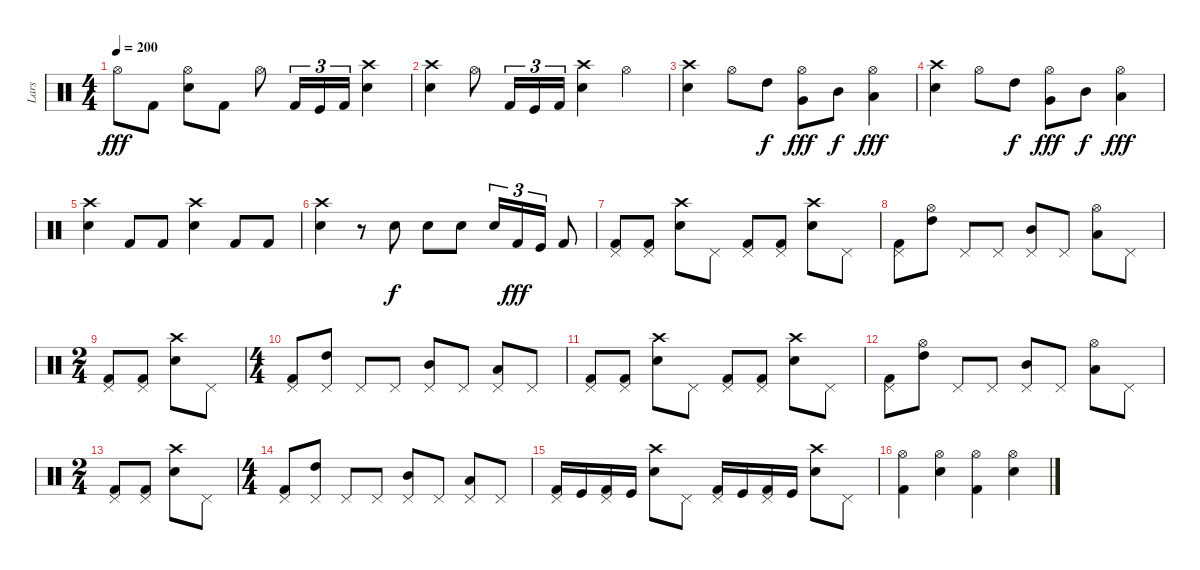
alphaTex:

\track ("Lars" "Lars") {instrument percussion}
\staff {score}
\articulation defaults
\ts (4 4)
\tempo 200
\clef neutral
\ks c "Hi-Hat (open)".8{dy fff} "Kick (hit) 2".8
("Hi-Hat (open)" "Snare (hit) 2").8 "Kick (hit) 2".8 "Hi-Hat (open)".8 "Kick (hit) 2".16{tu (3 2)} "Kick (hit)".16{tu (3 2)} "Kick (hit) 2".16{tu (3 2)} ("Crash high (hit)" "Snare (hit) 2").4 |
("Crash high (hit)" "Snare (hit) 2").4 "Hi-Hat (open)".8 "Kick (hit) 2".16{tu (3 2)} "Kick (hit)".16{tu (3 2)} "Kick (hit) 2".16{tu (3 2)} ("Crash high (hit)" "Snare (hit) 2").4 "Hi-Hat (open)".4 |
("Crash high (hit)" "Snare (hit) 2").4 "Hi-Hat (open)".8 "High Tom (hit)".8{dy f} ("Hi-Hat (open)" "Very Low Tom (hit)").8{dy fff} "Mid Tom (hit)".8{dy f} ("Hi-Hat (open)" "Low Floor Tom (hit)").4{dy fff} |
("Crash high (hit)" "Snare (hit) 2").4 "Hi-Hat (open)".8 "High Tom (hit)".8{dy f} ("Hi-Hat (open)" "Very Low Tom (hit)").8{dy fff} "Mid Tom (hit)".8{dy f} ("Hi-Hat (open)" "Low Floor Tom (hit)").4{dy fff} |
("Crash high (hit)" "Snare (hit) 2").4 "Kick (hit) 2".8 "Kick (hit) 2".8 ("Crash high (hit)" "Snare (hit) 2").4 "Kick (hit) 2".8 "Kick (hit) 2".8 |
("Crash high (hit)" "Snare (hit) 2").4 r.8 "Snare (hit) 2".8{dy f} "Snare (hit) 2".8 "Snare (hit) 2".8 "Snare (hit) 2".16{tu (3 2)} "Kick (hit) 2".16{tu (3 2) dy fff} "Kick (hit)".16{tu (3 2)} "Kick (hit) 2".8 |
("Pedal Hi-Hat (hit)" "Kick (hit) 2").8 ("Pedal Hi-Hat (hit)" "Kick (hit) 2").8 ("Crash high (hit)" "Snare (hit) 2").8 "Pedal Hi-Hat (hit)".8 ("Pedal Hi-Hat (hit)" "Kick (hit) 2").8 ("Pedal Hi-Hat (hit)" "Kick (hit) 2").8 ("Crash high (hit)" "Snare (hit) 2").8 "Pedal Hi-Hat (hit)".8 |
("Pedal Hi-Hat (hit)" "Kick (hit) 2").8 ("Hi-Hat (open)" "High Tom (hit)").8 "Pedal Hi-Hat (hit)".8 "Pedal Hi-Hat (hit)".8 ("Pedal Hi-Hat (hit)" "Mid Tom (hit)").8 "Pedal Hi-Hat (hit)".8 ("Hi-Hat (open)" "Low Tom (hit)").8 "Pedal Hi-Hat (hit)".8 |
\ts (2 4)
("Pedal Hi-Hat (hit)" "Kick (hit) 2").8 ("Pedal Hi-Hat (hit)" "Kick (hit) 2").8 ("Crash high (hit)" "Snare (hit) 2").8 "Pedal Hi-Hat (hit)".8 |
\ts (4 4)
("Pedal Hi-Hat (hit)" "Kick (hit) 2").8 ("Pedal Hi-Hat (hit)" "High Tom (hit)").8 "Pedal Hi-Hat (hit)".8 "Pedal Hi-Hat (hit)".8 ("Pedal Hi-Hat (hit)" "Mid Tom (hit)").8 "Pedal Hi-Hat (hit)".8 ("Pedal Hi-Hat (hit)" "Low Tom (hit)").8 "Pedal Hi-Hat (hit)".8 |
("Pedal Hi-Hat (hit)" "Kick (hit) 2").8 ("Pedal Hi-Hat (hit)" "Kick (hit) 2").8 ("Crash high (hit)" "Snare (hit) 2").8 "Pedal Hi-Hat (hit)".8 ("Pedal Hi-Hat (hit)" "Kick (hit) 2").8 ("Pedal Hi-Hat (hit)" "Kick (hit) 2").8 ("Crash high (hit)" "Snare (hit) 2").8 "Pedal Hi-Hat (hit)".8 |
("Pedal Hi-Hat (hit)" "Kick (hit) 2").8 ("Hi-Hat (open)" "High Tom (hit)").8 "Pedal Hi-Hat (hit)".8 "Pedal Hi-Hat (hit)".8 ("Pedal Hi-Hat (hit)" "Mid Tom (hit)").8 "Pedal Hi-Hat (hit)".8 ("Hi-Hat (open)" "Low Tom (hit)").8 "Pedal Hi-Hat (hit)".8 |
\ts (2 4)
("Pedal Hi-Hat (hit)" "Kick (hit) 2").8 ("Pedal Hi-Hat (hit)" "Kick (hit) 2").8 ("Crash high (hit)" "Snare (hit) 2").8 "Pedal Hi-Hat (hit)".8 |
\ts (4 4)
("Pedal Hi-Hat (hit)" "Kick (hit) 2").8 ("Pedal Hi-Hat (hit)" "High Tom (hit)").8 "Pedal Hi-Hat (hit)".8 "Pedal Hi-Hat (hit)".8 ("Pedal Hi-Hat (hit)" "Mid Tom (hit)").8 "Pedal Hi-Hat (hit)".8 ("Pedal Hi-Hat (hit)" "Low Tom (hit)").8 "Pedal Hi-Hat (hit)".8 |
("Pedal Hi-Hat (hit)" "Kick (hit) 2").16 "Kick (hit)".16 ("Pedal Hi-Hat (hit)" "Kick (hit) 2").16 "Kick (hit)".16 ("Crash high (hit)" "Snare (hit) 2").8 "Pedal Hi-Hat (hit)".8 ("Pedal Hi-Hat (hit)" "Kick (hit) 2").16 "Kick (hit)".16 ("Pedal Hi-Hat (hit)" "Kick (hit) 2").16 "Kick (hit)".16 ("Crash high (hit)" "Snare (hit) 2").8 "Pedal Hi-Hat (hit)".8 |
("Hi-Hat (open)" "Kick (hit) 2").4 ("Hi-Hat (open)" "Snare (hit) 2").4 ("Hi-Hat (open)" "Kick (hit) 2").4 ("Hi-Hat (open)" "Snare (hit) 2").4
